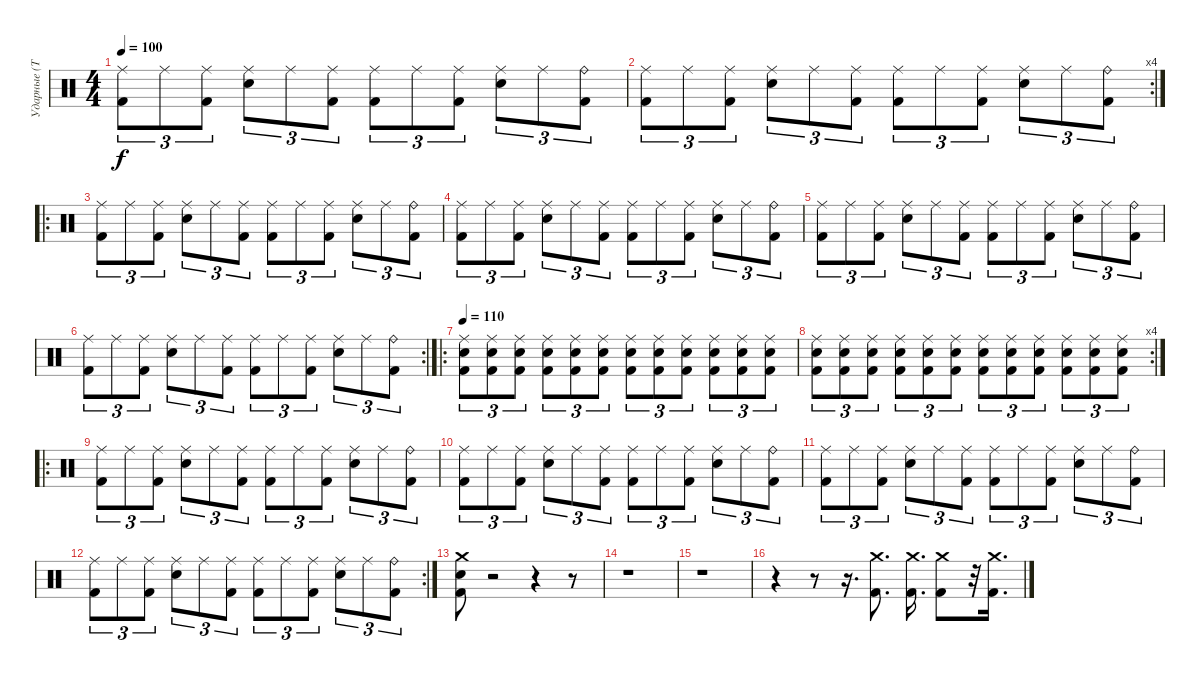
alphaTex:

\track ("Ударные (Тьодальв)" "Ударные (Т") {instrument percussion}
\staff {score}
\articulation defaults
\ts (4 4)
\tempo 100
\clef neutral
\ks c
("Ride (middle)" "Kick (hit) 2").8{tu (3 2) dy f} "Ride (middle)".8{tu (3 2)} ("Ride (middle)" "Kick (hit) 2").8{tu (3 2)} ("Ride (middle)" "Snare (hit) 2").8{tu (3 2)} "Ride (middle)".8{tu (3 2)} ("Ride (middle)" "Kick (hit) 2").8{tu (3 2)} ("Ride (middle)" "Kick (hit) 2").8{tu (3 2)} "Ride (middle)".8{tu (3 2)} ("Ride (middle)" "Kick (hit) 2").8{tu (3 2)} ("Ride (middle)" "Snare (hit) 2").8{tu (3 2)} "Ride (middle)".8{tu (3 2)} ("Ride (bell)" "Kick (hit) 2").8{tu (3 2)} |
\rc 4
("Ride (middle)" "Kick (hit) 2").8{tu (3 2)} "Ride (middle)".8{tu (3 2)} ("Ride (middle)" "Kick (hit) 2").8{tu (3 2)} ("Ride (middle)" "Snare (hit) 2").8{tu (3 2)} "Ride (middle)".8{tu (3 2)} ("Ride (middle)" "Kick (hit) 2").8{tu (3 2)} ("Ride (middle)" "Kick (hit) 2").8{tu (3 2)} "Ride (middle)".8{tu (3 2)} ("Ride (middle)" "Kick (hit) 2").8{tu (3 2)} ("Ride (middle)" "Snare (hit) 2").8{tu (3 2)} "Ride (middle)".8{tu (3 2)} ("Ride (bell)" "Kick (hit) 2").8{tu (3 2)} |
\ro
("Ride (middle)" "Kick (hit) 2").8{tu (3 2)} "Ride (middle)".8{tu (3 2)} ("Ride (middle)" "Kick (hit) 2").8{tu (3 2)} ("Ride (middle)" "Snare (hit) 2").8{tu (3 2)} "Ride (middle)".8{tu (3 2)} ("Ride (middle)" "Kick (hit) 2").8{tu (3 2)} ("Ride (middle)" "Kick (hit) 2").8{tu (3 2)} "Ride (middle)".8{tu (3 2)} ("Ride (middle)" "Kick (hit) 2").8{tu (3 2)} ("Ride (middle)" "Snare (hit) 2").8{tu (3 2)} "Ride (middle)".8{tu (3 2)} ("Ride (bell)" "Kick (hit) 2").8{tu (3 2)} |
("Ride (middle)" "Kick (hit) 2").8{tu (3 2)} "Ride (middle)".8{tu (3 2)} ("Ride (middle)" "Kick (hit) 2").8{tu (3 2)} ("Ride (middle)" "Snare (hit) 2").8{tu (3 2)} "Ride (middle)".8{tu (3 2)} ("Ride (middle)" "Kick (hit) 2").8{tu (3 2)} ("Ride (middle)" "Kick (hit) 2").8{tu (3 2)} "Ride (middle)".8{tu (3 2)} ("Ride (middle)" "Kick (hit) 2").8{tu (3 2)} ("Ride (middle)" "Snare (hit) 2").8{tu (3 2)} "Ride (middle)".8{tu (3 2)} ("Ride (bell)" "Kick (hit) 2").8{tu (3 2)} |
("Ride (middle)" "Kick (hit) 2").8{tu (3 2)} "Ride (middle)".8{tu (3 2)} ("Ride (middle)" "Kick (hit) 2").8{tu (3 2)} ("Ride (middle)" "Snare (hit) 2").8{tu (3 2)} "Ride (middle)".8{tu (3 2)} ("Ride (middle)" "Kick (hit) 2").8{tu (3 2)} ("Ride (middle)" "Kick (hit) 2").8{tu (3 2)} "Ride (middle)".8{tu (3 2)} ("Ride (middle)" "Kick (hit) 2").8{tu (3 2)} ("Ride (middle)" "Snare (hit) 2").8{tu (3 2)} "Ride (middle)".8{tu (3 2)} ("Ride (bell)" "Kick (hit) 2").8{tu (3 2)} |
\rc 2
("Ride (middle)" "Kick (hit) 2").8{tu (3 2)} "Ride (middle)".8{tu (3 2)} ("Ride (middle)" "Kick (hit) 2").8{tu (3 2)} ("Ride (middle)" "Snare (hit) 2").8{tu (3 2)} "Ride (middle)".8{tu (3 2)} ("Ride (middle)" "Kick (hit) 2").8{tu (3 2)} ("Ride (middle)" "Kick (hit) 2").8{tu (3 2)} "Ride (middle)".8{tu (3 2)} ("Ride (middle)" "Kick (hit) 2").8{tu (3 2)} ("Ride (middle)" "Snare (hit) 2").8{tu (3 2)} "Ride (middle)".8{tu (3 2)} ("Ride (bell)" "Kick (hit) 2").8{tu (3 2)} |
\ro
\tempo 110
("Ride (middle)" "Snare (hit) 2" "Kick (hit) 2").8{tu (3 2)} ("Ride (middle)" "Snare (hit) 2" "Kick (hit) 2").8{tu (3 2)} ("Ride (middle)" "Snare (hit) 2" "Kick (hit) 2").8{tu (3 2)} ("Ride (middle)" "Snare (hit) 2" "Kick (hit) 2").8{tu (3 2)} ("Ride (middle)" "Snare (hit) 2" "Kick (hit) 2").8{tu (3 2)} ("Ride (middle)" "Snare (hit) 2" "Kick (hit) 2").8{tu (3 2)} ("Ride (middle)" "Snare (hit) 2" "Kick (hit) 2").8{tu (3 2)} ("Ride (middle)" "Snare (hit) 2" "Kick (hit) 2").8{tu (3 2)} ("Ride (middle)" "Snare (hit) 2" "Kick (hit) 2").8{tu (3 2)} ("Ride (middle)" "Snare (hit) 2" "Kick (hit) 2").8{tu (3 2)} ("Ride (middle)" "Snare (hit) 2" "Kick (hit) 2").8{tu (3 2)} ("Ride (middle)" "Snare (hit) 2" "Kick (hit) 2").8{tu (3 2)} |
\rc 4
("Ride (middle)" "Snare (hit) 2" "Kick (hit) 2").8{tu (3 2)} ("Ride (middle)" "Snare (hit) 2" "Kick (hit) 2").8{tu (3 2)} ("Ride (middle)" "Snare (hit) 2" "Kick (hit) 2").8{tu (3 2)} ("Ride (middle)" "Snare (hit) 2" "Kick (hit) 2").8{tu (3 2)} ("Ride (middle)" "Snare (hit) 2" "Kick (hit) 2").8{tu (3 2)} ("Ride (middle)" "Snare (hit) 2" "Kick (hit) 2").8{tu (3 2)} ("Ride (middle)" "Snare (hit) 2" "Kick (hit) 2").8{tu (3 2)} ("Ride (middle)" "Snare (hit) 2" "Kick (hit) 2").8{tu (3 2)} ("Ride (middle)" "Snare (hit) 2" "Kick (hit) 2").8{tu (3 2)} ("Ride (middle)" "Snare (hit) 2" "Kick (hit) 2").8{tu (3 2)} ("Ride (middle)" "Snare (hit) 2" "Kick (hit) 2").8{tu (3 2)} ("Ride (middle)" "Snare (hit) 2" "Kick (hit) 2").8{tu (3 2)} |
\ro
("Ride (middle)" "Kick (hit) 2").8{tu (3 2)} "Ride (middle)".8{tu (3 2)} ("Ride (middle)" "Kick (hit) 2").8{tu (3 2)} ("Ride (middle)" "Snare (hit) 2").8{tu (3 2)} "Ride (middle)".8{tu (3 2)} ("Ride (middle)" "Kick (hit) 2").8{tu (3 2)} ("Ride (middle)" "Kick (hit) 2").8{tu (3 2)} "Ride (middle)".8{tu (3 2)} ("Ride (middle)" "Kick (hit) 2").8{tu (3 2)} ("Ride (middle)" "Snare (hit) 2").8{tu (3 2)} "Ride (middle)".8{tu (3 2)} ("Ride (bell)" "Kick (hit) 2").8{tu (3 2)} |
("Ride (middle)" "Kick (hit) 2").8{tu (3 2)} "Ride (middle)".8{tu (3 2)} ("Ride (middle)" "Kick (hit) 2").8{tu (3 2)} ("Ride (middle)" "Snare (hit) 2").8{tu (3 2)} "Ride (middle)".8{tu (3 2)} ("Ride (middle)" "Kick (hit) 2").8{tu (3 2)} ("Ride (middle)" "Kick (hit) 2").8{tu (3 2)} "Ride (middle)".8{tu (3 2)} ("Ride (middle)" "Kick (hit) 2").8{tu (3 2)} ("Ride (middle)" "Snare (hit) 2").8{tu (3 2)} "Ride (middle)".8{tu (3 2)} ("Ride (bell)" "Kick (hit) 2").8{tu (3 2)} |
("Ride (middle)" "Kick (hit) 2").8{tu (3 2)} "Ride (middle)".8{tu (3 2)} ("Ride (middle)" "Kick (hit) 2").8{tu (3 2)} ("Ride (middle)" "Snare (hit) 2").8{tu (3 2)} "Ride (middle)".8{tu (3 2)} ("Ride (middle)" "Kick (hit) 2").8{tu (3 2)} ("Ride (middle)" "Kick (hit) 2").8{tu (3 2)} "Ride (middle)".8{tu (3 2)} ("Ride (middle)" "Kick (hit) 2").8{tu (3 2)} ("Ride (middle)" "Snare (hit) 2").8{tu (3 2)} "Ride (middle)".8{tu (3 2)} ("Ride (bell)" "Kick (hit) 2").8{tu (3 2)} |
\rc 2
("Ride (middle)" "Kick (hit) 2").8{tu (3 2)} "Ride (middle)".8{tu (3 2)} ("Ride (middle)" "Kick (hit) 2").8{tu (3 2)} ("Ride (middle)" "Snare (hit) 2").8{tu (3 2)} "Ride (middle)".8{tu (3 2)} ("Ride (middle)" "Kick (hit) 2").8{tu (3 2)} ("Ride (middle)" "Kick (hit) 2").8{tu (3 2)} "Ride (middle)".8{tu (3 2)} ("Ride (middle)" "Kick (hit) 2").8{tu (3 2)} ("Ride (middle)" "Snare (hit) 2").8{tu (3 2)} "Ride (middle)".8{tu (3 2)} ("Ride (bell)" "Kick (hit) 2").8{tu (3 2)} |
("Kick (hit) 2" "Snare (hit) 2" "Crash medium (hit)").8 r.2 r.4 r.8 |
r.1 |
r.1 |
r.4 r.8 r.16{d} ("Kick (hit) 2" "Crash medium (hit)").8{d} ("Kick (hit) 2" "Crash medium (hit)").16{d} ("Kick (hit) 2" "Crash medium (hit)").8 r.32 ("Kick (hit) 2" "Crash medium (hit)").16{d}
